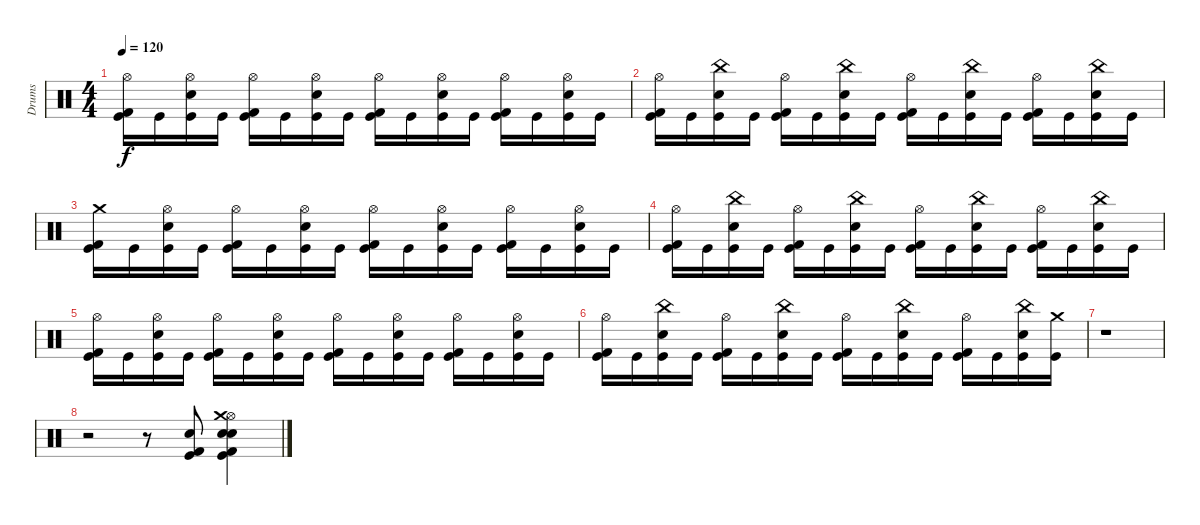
\track ("Drums" "Drums") {instrument percussion}
\staff {score}
\articulation defaults
\ts (4 4)
\tempo 120
\clef neutral
\ks c
("Hi-Hat (open)" "Kick (hit)" "Kick (hit) 2").16{dy f} "Kick (hit)".16 ("Hi-Hat (open)" "Kick (hit)" "Snare (hit) 2").16 "Kick (hit)".16 ("Hi-Hat (open)" "Kick (hit)" "Kick (hit) 2").16 "Kick (hit)".16 ("Hi-Hat (open)" "Kick (hit)" "Snare (hit) 2").16 "Kick (hit)".16 ("Hi-Hat (open)" "Kick (hit)" "Kick (hit) 2").16 "Kick (hit)".16 ("Hi-Hat (open)" "Kick (hit)" "Snare (hit) 2").16 "Kick (hit)".16 ("Hi-Hat (open)" "Kick (hit)" "Kick (hit) 2").16 "Kick (hit)".16 ("Hi-Hat (open)" "Kick (hit)" "Snare (hit) 2").16 "Kick (hit)".16 |
("Hi-Hat (open)" "Kick (hit)" "Kick (hit) 2").16 "Kick (hit)".16 ("China (hit)" "Kick (hit)" "Snare (hit) 2").16 "Kick (hit)".16 ("Hi-Hat (open)" "Kick (hit)" "Kick (hit) 2").16 "Kick (hit)".16 ("China (hit)" "Kick (hit)" "Snare (hit) 2").16 "Kick (hit)".16 ("Hi-Hat (open)" "Kick (hit)" "Kick (hit) 2").16 "Kick (hit)".16 ("China (hit)" "Kick (hit)" "Snare (hit) 2").16 "Kick (hit)".16 ("Hi-Hat (open)" "Kick (hit)" "Kick (hit) 2").16 "Kick (hit)".16 ("China (hit)" "Kick (hit)" "Snare (hit) 2").16 "Kick (hit)".16 |
("Kick (hit)" "Kick (hit) 2" "Crash medium (hit)").16 "Kick (hit)".16 ("Hi-Hat (open)" "Kick (hit)" "Snare (hit) 2").16 "Kick (hit)".16 ("Hi-Hat (open)" "Kick (hit)" "Kick (hit) 2").16 "Kick (hit)".16 ("Hi-Hat (open)" "Kick (hit)" "Snare (hit) 2").16 "Kick (hit)".16 ("Hi-Hat (open)" "Kick (hit)" "Kick (hit) 2").16 "Kick (hit)".16 ("Hi-Hat (open)" "Kick (hit)" "Snare (hit) 2").16 "Kick (hit)".16 ("Hi-Hat (open)" "Kick (hit)" "Kick (hit) 2").16 "Kick (hit)".16 ("Hi-Hat (open)" "Kick (hit)" "Snare (hit) 2").16 "Kick (hit)".16 |
("Hi-Hat (open)" "Kick (hit)" "Kick (hit) 2").16 "Kick (hit)".16 ("China (hit)" "Kick (hit)" "Snare (hit) 2").16 "Kick (hit)".16 ("Hi-Hat (open)" "Kick (hit)" "Kick (hit) 2").16 "Kick (hit)".16 ("China (hit)" "Kick (hit)" "Snare (hit) 2").16 "Kick (hit)".16 ("Hi-Hat (open)" "Kick (hit)" "Kick (hit) 2").16 "Kick (hit)".16 ("China (hit)" "Kick (hit)" "Snare (hit) 2").16 "Kick (hit)".16 ("Hi-Hat (open)" "Kick (hit)" "Kick (hit) 2").16 "Kick (hit)".16 ("China (hit)" "Kick (hit)" "Snare (hit) 2").16 "Kick (hit)".16 |
("Hi-Hat (open)" "Kick (hit)" "Kick (hit) 2").16 "Kick (hit)".16 ("Hi-Hat (open)" "Kick (hit)" "Snare (hit) 2").16 "Kick (hit)".16 ("Hi-Hat (open)" "Kick (hit)" "Kick (hit) 2").16 "Kick (hit)".16 ("Hi-Hat (open)" "Kick (hit)" "Snare (hit) 2").16 "Kick (hit)".16 ("Hi-Hat (open)" "Kick (hit)" "Kick (hit) 2").16 "Kick (hit)".16 ("Hi-Hat (open)" "Kick (hit)" "Snare (hit) 2").16 "Kick (hit)".16 ("Hi-Hat (open)" "Kick (hit)" "Kick (hit) 2").16 "Kick (hit)".16 ("Hi-Hat (open)" "Kick (hit)" "Snare (hit) 2").16 "Kick (hit)".16 |
("Hi-Hat (open)" "Kick (hit)" "Kick (hit) 2").16 "Kick (hit)".16 ("China (hit)" "Kick (hit)" "Snare (hit) 2").16 "Kick (hit)".16 ("Hi-Hat (open)" "Kick (hit)" "Kick (hit) 2").16 "Kick (hit)".16 ("China (hit)" "Kick (hit)" "Snare (hit) 2").16 "Kick (hit)".16 ("Hi-Hat (open)" "Kick (hit)" "Kick (hit) 2").16 "Kick (hit)".16 ("China (hit)" "Kick (hit)" "Snare (hit) 2").16 "Kick (hit)".16 ("Hi-Hat (open)" "Kick (hit)" "Kick (hit) 2").16 "Kick (hit)".16 ("China (hit)" "Kick (hit)" "Snare (hit) 2").16 ("Kick (hit)" "Crash medium (hit)").16 |
r.1 |
r.2 r.8 ("Kick (hit)" "Kick (hit) 2" "Electric Snare (hit)").8 ("Hi-Hat (open)" "Kick (hit)" "Kick (hit) 2" "Snare (hit) 2" "Electric Snare (hit)" "Crash medium (hit)").4
